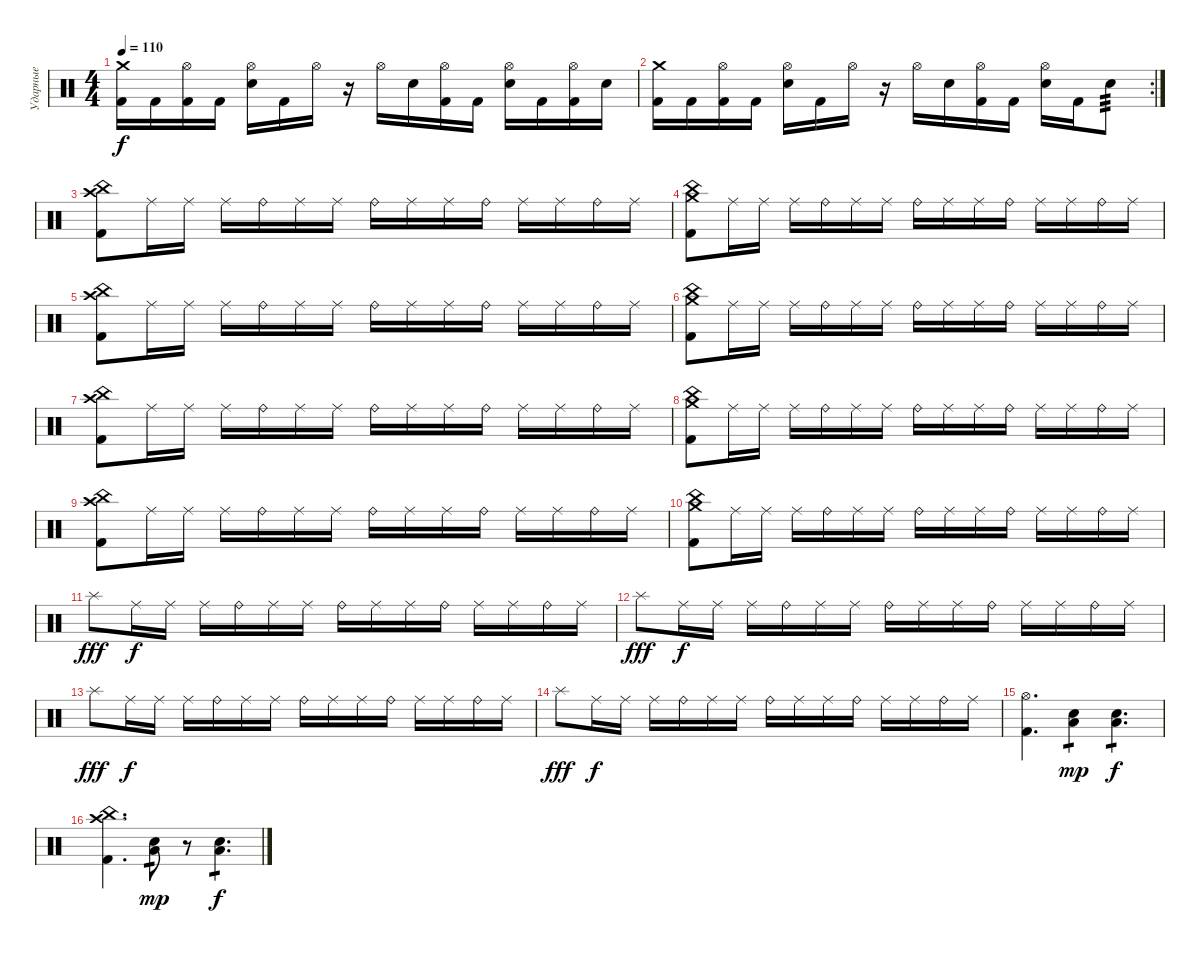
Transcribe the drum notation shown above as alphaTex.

\track ("Ударные" "Ударные") {instrument percussion}
\staff {score}
\articulation defaults
\ts (4 4)
\tempo 110
\clef neutral
\ks c
("Crash medium (hit)" "Kick (hit) 2").16{dy f} "Kick (hit) 2".16 ("Hi-Hat (open)" "Kick (hit) 2").16 "Kick (hit) 2".16 ("Hi-Hat (open)" "Electric Snare (hit)").16 "Kick (hit) 2".16 "Hi-Hat (open)".16 r.16 "Hi-Hat (open)".16 "Electric Snare (hit)".16 ("Hi-Hat (open)" "Kick (hit) 2").16 "Kick (hit) 2".16 ("Hi-Hat (open)" "Electric Snare (hit)").16 "Kick (hit) 2".16 ("Hi-Hat (open)" "Kick (hit) 2").16 "Electric Snare (hit)".16 |
\rc 2
("Crash medium (hit)" "Kick (hit) 2").16 "Kick (hit) 2".16 ("Hi-Hat (open)" "Kick (hit) 2").16 "Kick (hit) 2".16 ("Hi-Hat (open)" "Electric Snare (hit)").16 "Kick (hit) 2".16 "Hi-Hat (open)".16 r.16 "Hi-Hat (open)".16 "Electric Snare (hit)".16 ("Hi-Hat (open)" "Kick (hit) 2").16 "Kick (hit) 2".16 ("Hi-Hat (open)" "Electric Snare (hit)").16 "Kick (hit) 2".16 "Electric Snare (hit)".8{tp 3} |
("China (hit)" "Crash high (hit)" "Kick (hit) 2").8 "Ride (middle)".16 "Ride (middle)".16 "Ride (middle)".16 "Ride (bell)".16 "Ride (middle)".16 "Ride (middle)".16 "Ride (bell)".16 "Ride (middle)".16 "Ride (middle)".16 "Ride (bell)".16 "Ride (middle)".16 "Ride (middle)".16 "Ride (bell)".16 "Ride (middle)".16 |
("China (hit)" "Crash medium (hit)" "Kick (hit) 2").8 "Ride (middle)".16 "Ride (middle)".16 "Ride (middle)".16 "Ride (bell)".16 "Ride (middle)".16 "Ride (middle)".16 "Ride (bell)".16 "Ride (middle)".16 "Ride (middle)".16 "Ride (bell)".16 "Ride (middle)".16 "Ride (middle)".16 "Ride (bell)".16 "Ride (middle)".16 |
("China (hit)" "Crash high (hit)" "Kick (hit) 2").8 "Ride (middle)".16 "Ride (middle)".16 "Ride (middle)".16 "Ride (bell)".16 "Ride (middle)".16 "Ride (middle)".16 "Ride (bell)".16 "Ride (middle)".16 "Ride (middle)".16 "Ride (bell)".16 "Ride (middle)".16 "Ride (middle)".16 "Ride (bell)".16 "Ride (middle)".16 |
("China (hit)" "Crash medium (hit)" "Kick (hit) 2").8 "Ride (middle)".16 "Ride (middle)".16 "Ride (middle)".16 "Ride (bell)".16 "Ride (middle)".16 "Ride (middle)".16 "Ride (bell)".16 "Ride (middle)".16 "Ride (middle)".16 "Ride (bell)".16 "Ride (middle)".16 "Ride (middle)".16 "Ride (bell)".16 "Ride (middle)".16 |
("China (hit)" "Crash high (hit)" "Kick (hit) 2").8 "Ride (middle)".16 "Ride (middle)".16 "Ride (middle)".16 "Ride (bell)".16 "Ride (middle)".16 "Ride (middle)".16 "Ride (bell)".16 "Ride (middle)".16 "Ride (middle)".16 "Ride (bell)".16 "Ride (middle)".16 "Ride (middle)".16 "Ride (bell)".16 "Ride (middle)".16 |
("China (hit)" "Crash medium (hit)" "Kick (hit) 2").8 "Ride (middle)".16 "Ride (middle)".16 "Ride (middle)".16 "Ride (bell)".16 "Ride (middle)".16 "Ride (middle)".16 "Ride (bell)".16 "Ride (middle)".16 "Ride (middle)".16 "Ride (bell)".16 "Ride (middle)".16 "Ride (middle)".16 "Ride (bell)".16 "Ride (middle)".16 |
("China (hit)" "Crash high (hit)" "Kick (hit) 2").8 "Ride (middle)".16 "Ride (middle)".16 "Ride (middle)".16 "Ride (bell)".16 "Ride (middle)".16 "Ride (middle)".16 "Ride (bell)".16 "Ride (middle)".16 "Ride (middle)".16 "Ride (bell)".16 "Ride (middle)".16 "Ride (middle)".16 "Ride (bell)".16 "Ride (middle)".16 |
("China (hit)" "Crash medium (hit)" "Kick (hit) 2").8 "Ride (middle)".16 "Ride (middle)".16 "Ride (middle)".16 "Ride (bell)".16 "Ride (middle)".16 "Ride (middle)".16 "Ride (bell)".16 "Ride (middle)".16 "Ride (middle)".16 "Ride (bell)".16 "Ride (middle)".16 "Ride (middle)".16 "Ride (bell)".16 "Ride (middle)".16 |
"Splash (hit)".8{dy fff volume 6} "Ride (middle)".16{dy f} "Ride (middle)".16 "Ride (middle)".16 "Ride (bell)".16 "Ride (middle)".16 "Ride (middle)".16 "Ride (bell)".16 "Ride (middle)".16 "Ride (middle)".16 "Ride (bell)".16 "Ride (middle)".16 "Ride (middle)".16 "Ride (bell)".16 "Ride (middle)".16 |
"Splash (hit)".8{dy fff} "Ride (middle)".16{dy f} "Ride (middle)".16 "Ride (middle)".16 "Ride (bell)".16 "Ride (middle)".16 "Ride (middle)".16 "Ride (bell)".16 "Ride (middle)".16 "Ride (middle)".16 "Ride (bell)".16 "Ride (middle)".16 "Ride (middle)".16 "Ride (bell)".16 "Ride (middle)".16 |
"Splash (hit)".8{dy fff} "Ride (middle)".16{dy f} "Ride (middle)".16 "Ride (middle)".16 "Ride (bell)".16 "Ride (middle)".16 "Ride (middle)".16 "Ride (bell)".16 "Ride (middle)".16 "Ride (middle)".16 "Ride (bell)".16 "Ride (middle)".16 "Ride (middle)".16 "Ride (bell)".16 "Ride (middle)".16 |
"Splash (hit)".8{dy fff} "Ride (middle)".16{dy f} "Ride (middle)".16 "Ride (middle)".16 "Ride (bell)".16 "Ride (middle)".16 "Ride (middle)".16 "Ride (bell)".16 "Ride (middle)".16 "Ride (middle)".16 "Ride (bell)".16 "Ride (middle)".16 "Ride (middle)".16 "Ride (bell)".16 "Ride (middle)".16 |
("Hi-Hat (open)" "Kick (hit) 2").4{d volume 13} ("Low Tom (hit)" "Electric Snare (hit)").4{tp 1 dy mp} ("Low Tom (hit)" "Electric Snare (hit)").4{d tp 1 dy f} |
("Crash high (hit)" "China (hit)" "Kick (hit) 2").4{d} ("Low Tom (hit)" "Electric Snare (hit)").8{tp 1 dy mp} r.8 ("Low Tom (hit)" "Electric Snare (hit)").4{d tp 1 dy f}
